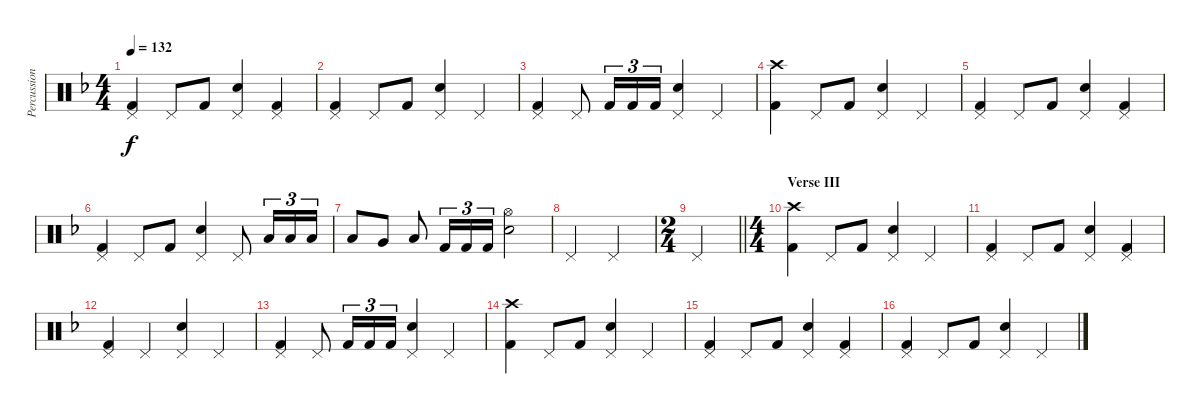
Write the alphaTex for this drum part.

\track ("Percussion" "Percussion") {instrument percussion}
\staff {score}
\articulation defaults
\ts (4 4)
\tempo 132
\clef neutral
\ks dminor
("Pedal Hi-Hat (hit)" "Kick (hit) 2").4{dy f} "Pedal Hi-Hat (hit)".8 "Kick (hit) 2".8 ("Pedal Hi-Hat (hit)" "Electric Snare (hit)").4 ("Pedal Hi-Hat (hit)" "Kick (hit) 2").4 |
("Pedal Hi-Hat (hit)" "Kick (hit) 2").4 "Pedal Hi-Hat (hit)".8 "Kick (hit) 2".8 ("Pedal Hi-Hat (hit)" "Electric Snare (hit)").4 "Pedal Hi-Hat (hit)".4 |
("Pedal Hi-Hat (hit)" "Kick (hit) 2").4 "Pedal Hi-Hat (hit)".8 "Kick (hit) 2".16{tu (3 2)} "Kick (hit) 2".16{tu (3 2)} "Kick (hit) 2".16{tu (3 2)} ("Pedal Hi-Hat (hit)" "Electric Snare (hit)").4 "Pedal Hi-Hat (hit)".4 |
("Crash high (hit)" "Kick (hit) 2").4 "Pedal Hi-Hat (hit)".8 "Kick (hit) 2".8 ("Pedal Hi-Hat (hit)" "Electric Snare (hit)").4 "Pedal Hi-Hat (hit)".4 |
("Pedal Hi-Hat (hit)" "Kick (hit) 2").4 "Pedal Hi-Hat (hit)".8 "Kick (hit) 2".8 ("Pedal Hi-Hat (hit)" "Electric Snare (hit)").4 ("Pedal Hi-Hat (hit)" "Kick (hit) 2").4 |
("Pedal Hi-Hat (hit)" "Kick (hit) 2").4 "Pedal Hi-Hat (hit)".8 "Kick (hit) 2".8 ("Pedal Hi-Hat (hit)" "Electric Snare (hit)").4 "Pedal Hi-Hat (hit)".8 "Low Tom (hit)".16{tu (3 2)} "Low Tom (hit)".16{tu (3 2)} "Low Tom (hit)".16{tu (3 2)} |
"Low Tom (hit)".8 "Very Low Tom (hit)".8 "Low Floor Tom (hit)".8 "Kick (hit) 2".16{tu (3 2)} "Kick (hit) 2".16{tu (3 2)} "Kick (hit) 2".16{tu (3 2)} ("Hi-Hat (open)" "Electric Snare (hit)").2 |
"Pedal Hi-Hat (hit)".2 "Pedal Hi-Hat (hit)".2 |
\ts (2 4)
\barLineRight lightlight "Pedal Hi-Hat (hit)".2
|
\ts (4 4)
\section ("" "Verse III")
("Crash high (hit)" "Kick (hit) 2").4 "Pedal Hi-Hat (hit)".8 "Kick (hit) 2".8 ("Pedal Hi-Hat (hit)" "Electric Snare (hit)").4 "Pedal Hi-Hat (hit)".4 |
("Pedal Hi-Hat (hit)" "Kick (hit) 2").4 "Pedal Hi-Hat (hit)".8 "Kick (hit) 2".8 ("Pedal Hi-Hat (hit)" "Electric Snare (hit)").4 ("Pedal Hi-Hat (hit)" "Kick (hit) 2").4 |
("Pedal Hi-Hat (hit)" "Kick (hit) 2").4 "Pedal Hi-Hat (hit)".4 ("Pedal Hi-Hat (hit)" "Electric Snare (hit)").4 "Pedal Hi-Hat (hit)".4 |
("Pedal Hi-Hat (hit)" "Kick (hit) 2").4 "Pedal Hi-Hat (hit)".8 "Kick (hit) 2".16{tu (3 2)} "Kick (hit) 2".16{tu (3 2)} "Kick (hit) 2".16{tu (3 2)} ("Pedal Hi-Hat (hit)" "Electric Snare (hit)").4 "Pedal Hi-Hat (hit)".4 |
("Crash high (hit)" "Kick (hit) 2").4 "Pedal Hi-Hat (hit)".8 "Kick (hit) 2".8 ("Pedal Hi-Hat (hit)" "Electric Snare (hit)").4 "Pedal Hi-Hat (hit)".4 |
("Pedal Hi-Hat (hit)" "Kick (hit) 2").4 "Pedal Hi-Hat (hit)".8 "Kick (hit) 2".8 ("Pedal Hi-Hat (hit)" "Electric Snare (hit)").4 ("Pedal Hi-Hat (hit)" "Kick (hit) 2").4 |
("Pedal Hi-Hat (hit)" "Kick (hit) 2").4 "Pedal Hi-Hat (hit)".8 "Kick (hit) 2".8 ("Pedal Hi-Hat (hit)" "Electric Snare (hit)").4 "Pedal Hi-Hat (hit)".4
